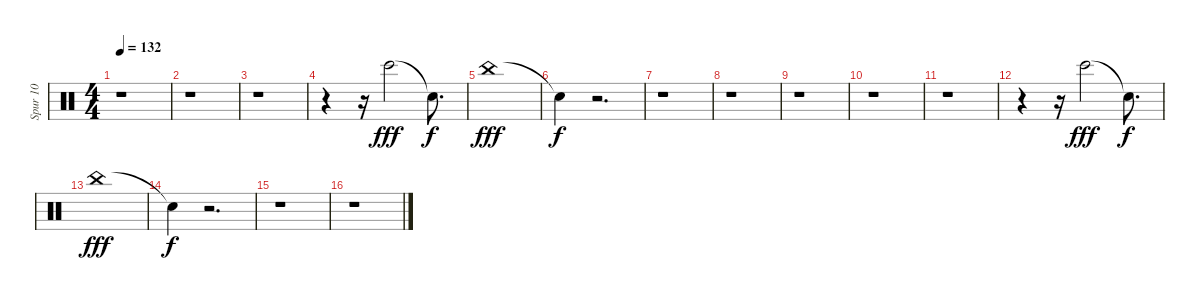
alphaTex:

\track ("Spur 10" "Spur 10") {instrument percussion}
\staff {score}
\articulation defaults
\ts (4 4)
\tempo 132
\clef neutral
\ks c
r.1{dy fff} |
r.1 |
r.1 |
r.4 r.16 "Bongo High (hit)".2 "Snare (hit)"{t}.8{d dy f} |
"China (hit)".1{dy fff} |
"Snare (hit)"{t}.4{dy f} r.2{d} |
r.1 |
r.1 |
r.1 |
r.1 |
r.1 |
r.4 r.16 "Bongo High (hit)".2{dy fff} "Snare (hit)"{t}.8{d dy f} |
"China (hit)".1{dy fff} |
"Snare (hit)"{t}.4{dy f} r.2{d} |
r.1 |
r.1
